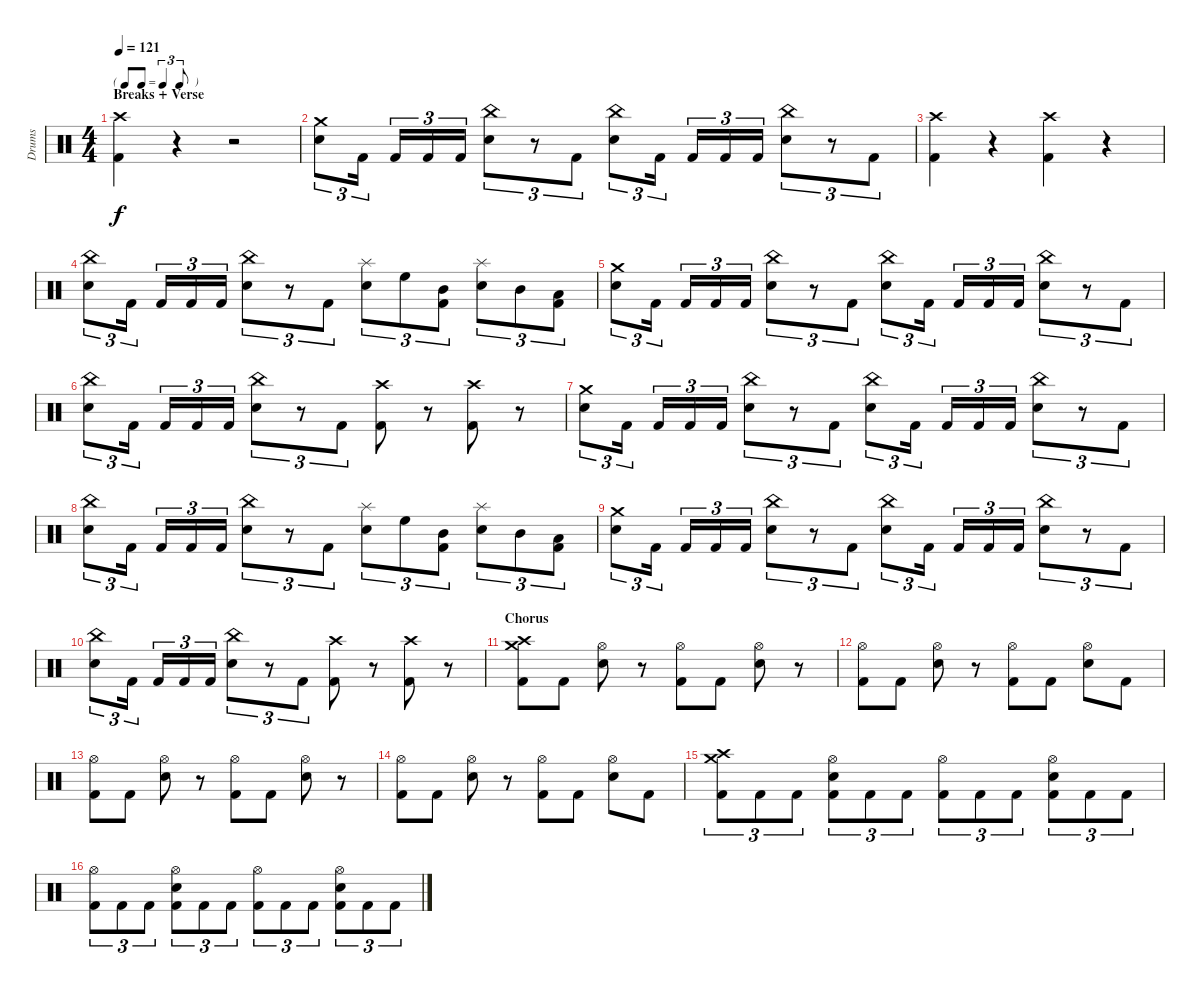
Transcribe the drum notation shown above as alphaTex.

\track ("Drums" "Drums") {instrument percussion}
\staff {score}
\articulation defaults
\ts (4 4)
\tf triplet8th
\section ("" "Breaks + Verse")
\tempo 121
\clef neutral
\ks c
("Crash high (hit)" "Kick (hit) 2").4{dy f} r.4{volume 0} r.2 |
("Crash medium (hit)" "Electric Snare (hit)").8{tu (3 2) volume 15} "Kick (hit) 2".16{tu (3 2)} "Kick (hit) 2".16{tu (3 2)} "Kick (hit) 2".16{tu (3 2)} "Kick (hit) 2".16{tu (3 2)} ("China (hit)" "Electric Snare (hit)").8{tu (3 2)} r.8{tu (3 2)} "Kick (hit) 2".8{tu (3 2)} ("China (hit)" "Electric Snare (hit)").8{tu (3 2)} "Kick (hit) 2".16{tu (3 2)} "Kick (hit) 2".16{tu (3 2)} "Kick (hit) 2".16{tu (3 2)} "Kick (hit) 2".16{tu (3 2)} ("China (hit)" "Electric Snare (hit)").8{tu (3 2)} r.8{tu (3 2)} "Kick (hit) 2".8{tu (3 2)} |
("Crash high (hit)" "Kick (hit) 2").4 r.4{volume 0} ("Crash high (hit)" "Kick (hit) 2").4{volume 15} r.4{volume 0} |
("China (hit)" "Electric Snare (hit)").8{tu (3 2) volume 15} "Kick (hit) 2".16{tu (3 2)} "Kick (hit) 2".16{tu (3 2)} "Kick (hit) 2".16{tu (3 2)} "Kick (hit) 2".16{tu (3 2)} ("China (hit)" "Electric Snare (hit)").8{tu (3 2)} r.8{tu (3 2)} "Kick (hit) 2".8{tu (3 2)} ("Splash (hit)" "Electric Snare (hit)").8{tu (3 2)} "High Floor Tom (hit)".8{tu (3 2)} ("Mid Tom (hit)" "Kick (hit) 2").8{tu (3 2)} ("Splash (hit)" "Electric Snare (hit)").8{tu (3 2)} "Mid Tom (hit)".8{tu (3 2)} ("Low Tom (hit)" "Kick (hit) 2").8{tu (3 2)} |
("Crash medium (hit)" "Electric Snare (hit)").8{tu (3 2)} "Kick (hit) 2".16{tu (3 2)} "Kick (hit) 2".16{tu (3 2)} "Kick (hit) 2".16{tu (3 2)} "Kick (hit) 2".16{tu (3 2)} ("China (hit)" "Electric Snare (hit)").8{tu (3 2)} r.8{tu (3 2)} "Kick (hit) 2".8{tu (3 2)} ("China (hit)" "Electric Snare (hit)").8{tu (3 2)} "Kick (hit) 2".16{tu (3 2)} "Kick (hit) 2".16{tu (3 2)} "Kick (hit) 2".16{tu (3 2)} "Kick (hit) 2".16{tu (3 2)} ("China (hit)" "Electric Snare (hit)").8{tu (3 2)} r.8{tu (3 2)} "Kick (hit) 2".8{tu (3 2)} |
("China (hit)" "Electric Snare (hit)").8{tu (3 2)} "Kick (hit) 2".16{tu (3 2)} "Kick (hit) 2".16{tu (3 2)} "Kick (hit) 2".16{tu (3 2)} "Kick (hit) 2".16{tu (3 2)} ("China (hit)" "Electric Snare (hit)").8{tu (3 2)} r.8{tu (3 2)} "Kick (hit) 2".8{tu (3 2)} ("Crash high (hit)" "Kick (hit) 2").8 r.8{volume 0} ("Crash high (hit)" "Kick (hit) 2").8{volume 15} r.8{volume 0} |
("Crash medium (hit)" "Electric Snare (hit)").8{tu (3 2) volume 15} "Kick (hit) 2".16{tu (3 2)} "Kick (hit) 2".16{tu (3 2)} "Kick (hit) 2".16{tu (3 2)} "Kick (hit) 2".16{tu (3 2)} ("China (hit)" "Electric Snare (hit)").8{tu (3 2)} r.8{tu (3 2)} "Kick (hit) 2".8{tu (3 2)} ("China (hit)" "Electric Snare (hit)").8{tu (3 2)} "Kick (hit) 2".16{tu (3 2)} "Kick (hit) 2".16{tu (3 2)} "Kick (hit) 2".16{tu (3 2)} "Kick (hit) 2".16{tu (3 2)} ("China (hit)" "Electric Snare (hit)").8{tu (3 2)} r.8{tu (3 2)} "Kick (hit) 2".8{tu (3 2)} |
("China (hit)" "Electric Snare (hit)").8{tu (3 2)} "Kick (hit) 2".16{tu (3 2)} "Kick (hit) 2".16{tu (3 2)} "Kick (hit) 2".16{tu (3 2)} "Kick (hit) 2".16{tu (3 2)} ("China (hit)" "Electric Snare (hit)").8{tu (3 2)} r.8{tu (3 2)} "Kick (hit) 2".8{tu (3 2)} ("Splash (hit)" "Electric Snare (hit)").8{tu (3 2)} "High Floor Tom (hit)".8{tu (3 2)} ("Mid Tom (hit)" "Kick (hit) 2").8{tu (3 2)} ("Splash (hit)" "Electric Snare (hit)").8{tu (3 2)} "Mid Tom (hit)".8{tu (3 2)} ("Low Tom (hit)" "Kick (hit) 2").8{tu (3 2)} |
("Crash medium (hit)" "Electric Snare (hit)").8{tu (3 2)} "Kick (hit) 2".16{tu (3 2)} "Kick (hit) 2".16{tu (3 2)} "Kick (hit) 2".16{tu (3 2)} "Kick (hit) 2".16{tu (3 2)} ("China (hit)" "Electric Snare (hit)").8{tu (3 2)} r.8{tu (3 2)} "Kick (hit) 2".8{tu (3 2)} ("China (hit)" "Electric Snare (hit)").8{tu (3 2)} "Kick (hit) 2".16{tu (3 2)} "Kick (hit) 2".16{tu (3 2)} "Kick (hit) 2".16{tu (3 2)} "Kick (hit) 2".16{tu (3 2)} ("China (hit)" "Electric Snare (hit)").8{tu (3 2)} r.8{tu (3 2)} "Kick (hit) 2".8{tu (3 2)} |
("China (hit)" "Electric Snare (hit)").8{tu (3 2)} "Kick (hit) 2".16{tu (3 2)} "Kick (hit) 2".16{tu (3 2)} "Kick (hit) 2".16{tu (3 2)} "Kick (hit) 2".16{tu (3 2)} ("China (hit)" "Electric Snare (hit)").8{tu (3 2)} r.8{tu (3 2)} "Kick (hit) 2".8{tu (3 2)} ("Crash high (hit)" "Kick (hit) 2").8 r.8{volume 0} ("Crash high (hit)" "Kick (hit) 2").8{volume 15} r.8{volume 0} |
\section ("" "Chorus")
("Crash high (hit)" "Crash medium (hit)" "Kick (hit) 2").8{volume 15} "Kick (hit) 2".8 ("Hi-Hat (open)" "Electric Snare (hit)").8 r.8 ("Hi-Hat (open)" "Kick (hit) 2").8 "Kick (hit) 2".8 ("Hi-Hat (open)" "Electric Snare (hit)").8 r.8 |
("Hi-Hat (open)" "Kick (hit) 2").8 "Kick (hit) 2".8 ("Hi-Hat (open)" "Electric Snare (hit)").8 r.8 ("Hi-Hat (open)" "Kick (hit) 2").8 "Kick (hit) 2".8 ("Hi-Hat (open)" "Electric Snare (hit)").8 "Kick (hit) 2".8 |
("Hi-Hat (open)" "Kick (hit) 2").8 "Kick (hit) 2".8 ("Hi-Hat (open)" "Electric Snare (hit)").8 r.8 ("Hi-Hat (open)" "Kick (hit) 2").8 "Kick (hit) 2".8 ("Hi-Hat (open)" "Electric Snare (hit)").8 r.8 |
("Hi-Hat (open)" "Kick (hit) 2").8 "Kick (hit) 2".8 ("Hi-Hat (open)" "Electric Snare (hit)").8 r.8 ("Hi-Hat (open)" "Kick (hit) 2").8 "Kick (hit) 2".8 ("Hi-Hat (open)" "Electric Snare (hit)").8 "Kick (hit) 2".8 |
("Crash medium (hit)" "Crash high (hit)" "Kick (hit) 2").8{tu (3 2)} "Kick (hit) 2".8{tu (3 2)} "Kick (hit) 2".8{tu (3 2)} ("Hi-Hat (open)" "Electric Snare (hit)" "Kick (hit) 2").8{tu (3 2)} "Kick (hit) 2".8{tu (3 2)} "Kick (hit) 2".8{tu (3 2)} ("Hi-Hat (open)" "Kick (hit) 2").8{tu (3 2)} "Kick (hit) 2".8{tu (3 2)} "Kick (hit) 2".8{tu (3 2)} ("Hi-Hat (open)" "Electric Snare (hit)" "Kick (hit) 2").8{tu (3 2)} "Kick (hit) 2".8{tu (3 2)} "Kick (hit) 2".8{tu (3 2)} |
("Hi-Hat (open)" "Kick (hit) 2").8{tu (3 2)} "Kick (hit) 2".8{tu (3 2)} "Kick (hit) 2".8{tu (3 2)} ("Hi-Hat (open)" "Electric Snare (hit)" "Kick (hit) 2").8{tu (3 2)} "Kick (hit) 2".8{tu (3 2)} "Kick (hit) 2".8{tu (3 2)} ("Hi-Hat (open)" "Kick (hit) 2").8{tu (3 2)} "Kick (hit) 2".8{tu (3 2)} "Kick (hit) 2".8{tu (3 2)} ("Hi-Hat (open)" "Electric Snare (hit)" "Kick (hit) 2").8{tu (3 2)} "Kick (hit) 2".8{tu (3 2)} "Kick (hit) 2".8{tu (3 2)}
